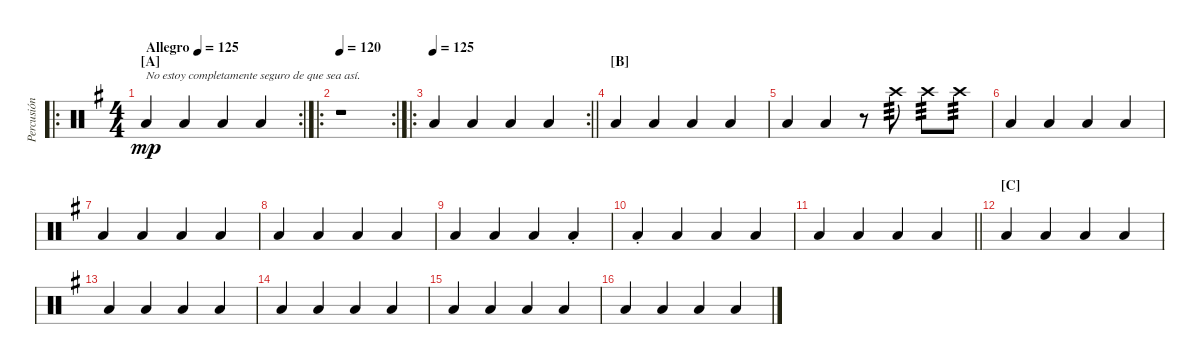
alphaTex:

\track ("Percusión" "Percusión") {instrument percussion}
\staff {score}
\articulation defaults
\ro
\rc 2
\ts (4 4)
\section ("" "[A]")
\tempo (125 "Allegro")
\clef neutral
\ks g "Low Floor Tom (hit)".4{txt "No estoy completamente seguro de que sea así." dy mp} "Low Floor Tom (hit)".4 "Low Floor Tom (hit)".4 "Low Floor Tom (hit)".4
|
\ro
\rc 2
\tempo 120
r.1 |
\ro
\rc 2
\tempo 125
\barLineRight lightlight "Low Floor Tom (hit)".4 "Low Floor Tom (hit)".4 "Low Floor Tom (hit)".4 "Low Floor Tom (hit)".4
|
\section ("" "[B]")
"Low Floor Tom (hit)".4 "Low Floor Tom (hit)".4 "Low Floor Tom (hit)".4 "Low Floor Tom (hit)".4 |
"Low Floor Tom (hit)".4 "Low Floor Tom (hit)".4 r.8 "Crash high (hit)".8{tp 3 volume 13} "Crash high (hit)".8{tp 3} "Crash high (hit)".8{tp 3} |
"Low Floor Tom (hit)".4 "Low Floor Tom (hit)".4 "Low Floor Tom (hit)".4 "Low Floor Tom (hit)".4 |
"Low Floor Tom (hit)".4 "Low Floor Tom (hit)".4 "Low Floor Tom (hit)".4 "Low Floor Tom (hit)".4 |
"Low Floor Tom (hit)".4 "Low Floor Tom (hit)".4 "Low Floor Tom (hit)".4 "Low Floor Tom (hit)".4 |
"Low Floor Tom (hit)".4 "Low Floor Tom (hit)".4 "Low Floor Tom (hit)".4 "Low Floor Tom (hit)"{st}.4 |
"Low Floor Tom (hit)"{st}.4 "Low Floor Tom (hit)".4 "Low Floor Tom (hit)".4 "Low Floor Tom (hit)".4 |
\barLineRight lightlight "Low Floor Tom (hit)".4 "Low Floor Tom (hit)".4 "Low Floor Tom (hit)".4 "Low Floor Tom (hit)".4
|
\section ("" "[C]")
"Low Floor Tom (hit)".4 "Low Floor Tom (hit)".4 "Low Floor Tom (hit)".4 "Low Floor Tom (hit)".4 |
"Low Floor Tom (hit)".4 "Low Floor Tom (hit)".4 "Low Floor Tom (hit)".4 "Low Floor Tom (hit)".4 |
"Low Floor Tom (hit)".4 "Low Floor Tom (hit)".4 "Low Floor Tom (hit)".4 "Low Floor Tom (hit)".4 |
"Low Floor Tom (hit)".4 "Low Floor Tom (hit)".4 "Low Floor Tom (hit)".4 "Low Floor Tom (hit)".4 |
"Low Floor Tom (hit)".4 "Low Floor Tom (hit)".4 "Low Floor Tom (hit)".4 "Low Floor Tom (hit)".4
